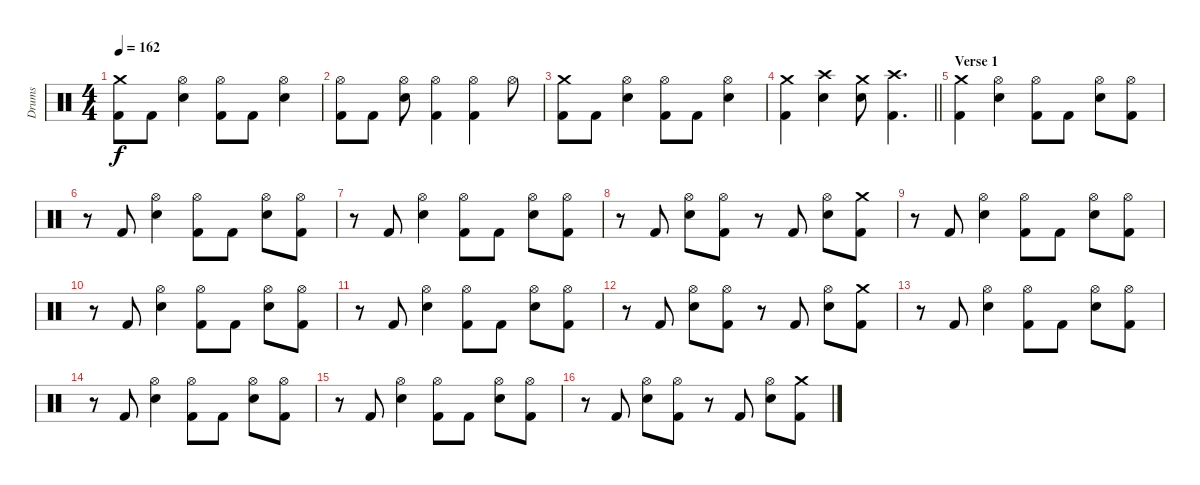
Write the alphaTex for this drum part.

\track ("Drums" "Drums") {instrument percussion}
\staff {score}
\articulation defaults
\ts (4 4)
\tempo 162
\clef neutral
\ks c
("Crash medium (hit)" "Kick (hit) 2").8{dy f} "Kick (hit) 2".8 ("Hi-Hat (open)" "Snare (hit) 2").4 ("Hi-Hat (open)" "Kick (hit) 2").8 "Kick (hit) 2".8 ("Hi-Hat (open)" "Snare (hit) 2").4 |
("Hi-Hat (open)" "Kick (hit) 2").8 "Kick (hit) 2".8 ("Hi-Hat (open)" "Snare (hit) 2").8 ("Hi-Hat (open)" "Kick (hit) 2").4 ("Hi-Hat (open)" "Kick (hit) 2").4 "Hi-Hat (open)".8 |
("Crash medium (hit)" "Kick (hit) 2").8 "Kick (hit) 2".8 ("Hi-Hat (open)" "Snare (hit) 2").4 ("Hi-Hat (open)" "Kick (hit) 2").8 "Kick (hit) 2".8 ("Hi-Hat (open)" "Snare (hit) 2").4 |
\barLineRight lightlight
("Crash medium (hit)" "Kick (hit) 2").4 ("Crash high (hit)" "Snare (hit) 2").4 ("Crash medium (hit)" "Snare (hit) 2").8 ("Crash high (hit)" "Kick (hit) 2").4{d} |
\section ("" "Verse 1")
("Crash medium (hit)" "Kick (hit) 2").4 ("Hi-Hat (open)" "Snare (hit) 2").4 ("Hi-Hat (open)" "Kick (hit) 2").8 "Kick (hit) 2".8 ("Hi-Hat (open)" "Snare (hit) 2").8 ("Hi-Hat (open)" "Kick (hit) 2").8 |
r.8 "Kick (hit) 2".8 ("Hi-Hat (open)" "Snare (hit) 2").4 ("Hi-Hat (open)" "Kick (hit) 2").8 "Kick (hit) 2".8 ("Hi-Hat (open)" "Snare (hit) 2").8 ("Hi-Hat (open)" "Kick (hit) 2").8 |
r.8 "Kick (hit) 2".8 ("Hi-Hat (open)" "Snare (hit) 2").4 ("Hi-Hat (open)" "Kick (hit) 2").8 "Kick (hit) 2".8 ("Hi-Hat (open)" "Snare (hit) 2").8 ("Hi-Hat (open)" "Kick (hit) 2").8 |
r.8 "Kick (hit) 2".8 ("Hi-Hat (open)" "Snare (hit) 2").8 ("Hi-Hat (open)" "Kick (hit) 2").8 r.8 "Kick (hit) 2".8 ("Hi-Hat (open)" "Snare (hit) 2").8 ("Crash medium (hit)" "Kick (hit) 2").8 |
r.8 "Kick (hit) 2".8 ("Hi-Hat (open)" "Snare (hit) 2").4 ("Hi-Hat (open)" "Kick (hit) 2").8 "Kick (hit) 2".8 ("Hi-Hat (open)" "Snare (hit) 2").8 ("Hi-Hat (open)" "Kick (hit) 2").8 |
r.8 "Kick (hit) 2".8 ("Hi-Hat (open)" "Snare (hit) 2").4 ("Hi-Hat (open)" "Kick (hit) 2").8 "Kick (hit) 2".8 ("Hi-Hat (open)" "Snare (hit) 2").8 ("Hi-Hat (open)" "Kick (hit) 2").8 |
r.8 "Kick (hit) 2".8 ("Hi-Hat (open)" "Snare (hit) 2").4 ("Hi-Hat (open)" "Kick (hit) 2").8 "Kick (hit) 2".8 ("Hi-Hat (open)" "Snare (hit) 2").8 ("Hi-Hat (open)" "Kick (hit) 2").8 |
r.8 "Kick (hit) 2".8 ("Hi-Hat (open)" "Snare (hit) 2").8 ("Hi-Hat (open)" "Kick (hit) 2").8 r.8 "Kick (hit) 2".8 ("Hi-Hat (open)" "Snare (hit) 2").8 ("Crash medium (hit)" "Kick (hit) 2").8 |
r.8 "Kick (hit) 2".8 ("Hi-Hat (open)" "Snare (hit) 2").4 ("Hi-Hat (open)" "Kick (hit) 2").8 "Kick (hit) 2".8 ("Hi-Hat (open)" "Snare (hit) 2").8 ("Hi-Hat (open)" "Kick (hit) 2").8 |
r.8 "Kick (hit) 2".8 ("Hi-Hat (open)" "Snare (hit) 2").4 ("Hi-Hat (open)" "Kick (hit) 2").8 "Kick (hit) 2".8 ("Hi-Hat (open)" "Snare (hit) 2").8 ("Hi-Hat (open)" "Kick (hit) 2").8 |
r.8 "Kick (hit) 2".8 ("Hi-Hat (open)" "Snare (hit) 2").4 ("Hi-Hat (open)" "Kick (hit) 2").8 "Kick (hit) 2".8 ("Hi-Hat (open)" "Snare (hit) 2").8 ("Hi-Hat (open)" "Kick (hit) 2").8 |
r.8 "Kick (hit) 2".8 ("Hi-Hat (open)" "Snare (hit) 2").8 ("Hi-Hat (open)" "Kick (hit) 2").8 r.8 "Kick (hit) 2".8 ("Hi-Hat (open)" "Snare (hit) 2").8 ("Crash medium (hit)" "Kick (hit) 2").8
